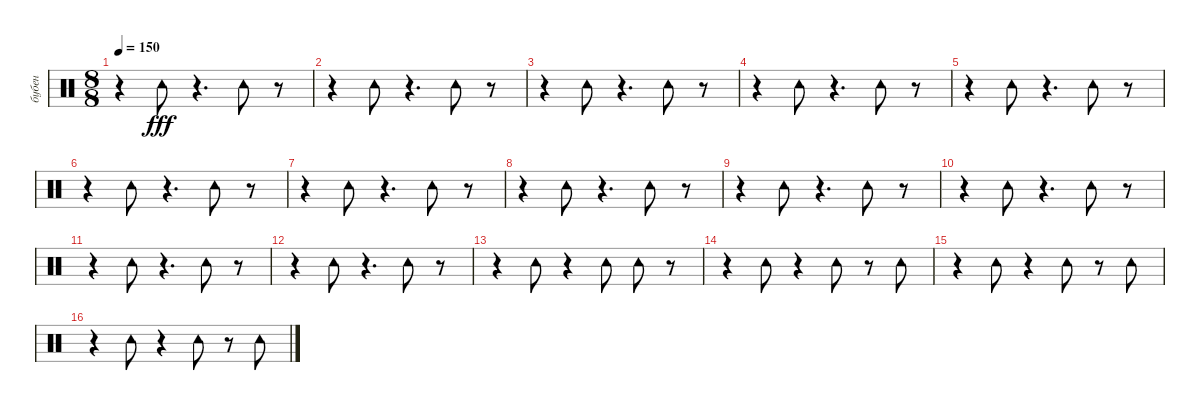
\track ("бубен" "бубен") {instrument percussion}
\staff {score}
\articulation defaults
\ts (8 8)
\tempo 150
\clef neutral
\ks c
r.4{dy fff} "Tambourine (hit)".8 r.4{d} "Tambourine (hit)".8 r.8 |
r.4 "Tambourine (hit)".8 r.4{d} "Tambourine (hit)".8 r.8 |
r.4 "Tambourine (hit)".8 r.4{d} "Tambourine (hit)".8 r.8 |
r.4 "Tambourine (hit)".8 r.4{d} "Tambourine (hit)".8 r.8 |
r.4 "Tambourine (hit)".8 r.4{d} "Tambourine (hit)".8 r.8 |
r.4 "Tambourine (hit)".8 r.4{d} "Tambourine (hit)".8 r.8 |
r.4 "Tambourine (hit)".8 r.4{d} "Tambourine (hit)".8 r.8 |
r.4 "Tambourine (hit)".8 r.4{d} "Tambourine (hit)".8 r.8 |
r.4 "Tambourine (hit)".8 r.4{d} "Tambourine (hit)".8 r.8 |
r.4 "Tambourine (hit)".8 r.4{d} "Tambourine (hit)".8 r.8 |
r.4 "Tambourine (hit)".8 r.4{d} "Tambourine (hit)".8 r.8 |
r.4 "Tambourine (hit)".8 r.4{d} "Tambourine (hit)".8 r.8 |
r.4 "Tambourine (hit)".8 r.4 "Tambourine (hit)".8 "Tambourine (hit)".8 r.8 |
r.4 "Tambourine (hit)".8 r.4 "Tambourine (hit)".8 r.8 "Tambourine (hit)".8 |
r.4 "Tambourine (hit)".8 r.4 "Tambourine (hit)".8 r.8 "Tambourine (hit)".8 |
r.4 "Tambourine (hit)".8 r.4 "Tambourine (hit)".8 r.8 "Tambourine (hit)".8
